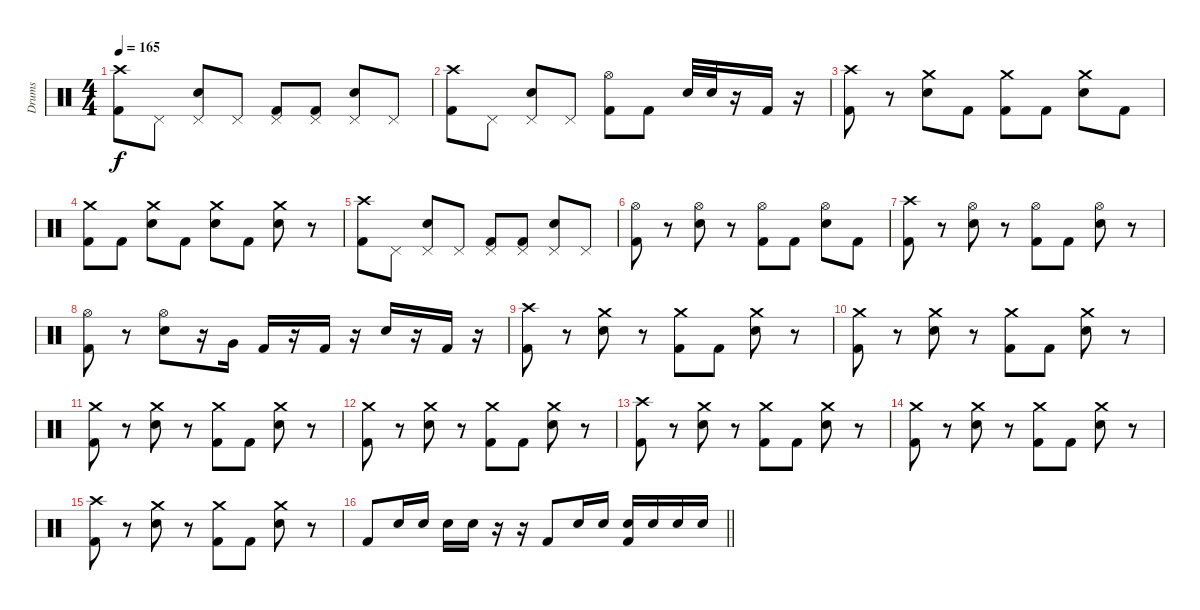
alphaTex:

\track ("Drums" "Drums") {instrument percussion}
\staff {score}
\articulation defaults
\ts (4 4)
\tempo 165
\clef neutral
\ks c
("Crash high (hit)" "Kick (hit) 2").8{dy f} "Pedal Hi-Hat (hit)".8 ("Pedal Hi-Hat (hit)" "Electric Snare (hit)").8 "Pedal Hi-Hat (hit)".8 ("Pedal Hi-Hat (hit)" "Kick (hit) 2").8 ("Pedal Hi-Hat (hit)" "Kick (hit) 2").8 ("Pedal Hi-Hat (hit)" "Electric Snare (hit)").8 "Pedal Hi-Hat (hit)".8 |
("Crash high (hit)" "Kick (hit) 2").8 "Pedal Hi-Hat (hit)".8 ("Pedal Hi-Hat (hit)" "Electric Snare (hit)").8 "Pedal Hi-Hat (hit)".8 ("Hi-Hat (open)" "Kick (hit) 2").8 "Kick (hit) 2".8 "Electric Snare (hit)".32 "Electric Snare (hit)".32 r.16 "Kick (hit) 2".16 r.16 |
("Crash high (hit)" "Kick (hit) 2").8 r.8 ("Crash medium (hit)" "Electric Snare (hit)").8 "Kick (hit) 2".8 ("Crash medium (hit)" "Kick (hit) 2").8 "Kick (hit) 2".8 ("Crash medium (hit)" "Electric Snare (hit)").8 "Kick (hit) 2".8 |
("Crash medium (hit)" "Kick (hit) 2").8 "Kick (hit) 2".8 ("Crash medium (hit)" "Electric Snare (hit)").8 "Kick (hit) 2".8 ("Crash medium (hit)" "Electric Snare (hit)").8 "Kick (hit) 2".8 ("Crash medium (hit)" "Electric Snare (hit)").8 r.8 |
("Crash high (hit)" "Kick (hit) 2").8 "Pedal Hi-Hat (hit)".8 ("Pedal Hi-Hat (hit)" "Electric Snare (hit)").8 "Pedal Hi-Hat (hit)".8 ("Pedal Hi-Hat (hit)" "Kick (hit) 2").8 ("Pedal Hi-Hat (hit)" "Kick (hit) 2").8 ("Pedal Hi-Hat (hit)" "Electric Snare (hit)").8 "Pedal Hi-Hat (hit)".8 |
("Hi-Hat (open)" "Kick (hit) 2").8 r.8 ("Hi-Hat (open)" "Electric Snare (hit)").8 r.8 ("Hi-Hat (open)" "Kick (hit) 2").8 "Kick (hit) 2".8 ("Hi-Hat (open)" "Electric Snare (hit)").8 "Kick (hit) 2".8 |
("Crash high (hit)" "Kick (hit) 2").8 r.8 ("Hi-Hat (open)" "Electric Snare (hit)").8 r.8 ("Hi-Hat (open)" "Kick (hit) 2").8 "Kick (hit) 2".8 ("Hi-Hat (open)" "Electric Snare (hit)").8 r.8 |
("Hi-Hat (open)" "Kick (hit) 2").8 r.8 ("Hi-Hat (open)" "Electric Snare (hit)").8 r.16 "Very Low Tom (hit)".16 "Kick (hit) 2".16 r.16 "Kick (hit) 2".16 r.16 "Electric Snare (hit)".16 r.16 "Kick (hit) 2".16 r.16 |
("Crash high (hit)" "Kick (hit) 2").8 r.8 ("Crash medium (hit)" "Electric Snare (hit)").8 r.8 ("Crash medium (hit)" "Kick (hit) 2").8 "Kick (hit) 2".8 ("Crash medium (hit)" "Electric Snare (hit)").8 r.8 |
("Crash medium (hit)" "Kick (hit) 2").8 r.8 ("Crash medium (hit)" "Electric Snare (hit)").8 r.8 ("Crash medium (hit)" "Kick (hit) 2").8 "Kick (hit) 2".8 ("Crash medium (hit)" "Electric Snare (hit)").8 r.8 |
("Crash medium (hit)" "Kick (hit) 2").8 r.8 ("Crash medium (hit)" "Electric Snare (hit)").8 r.8 ("Crash medium (hit)" "Kick (hit) 2").8 "Kick (hit) 2".8 ("Crash medium (hit)" "Electric Snare (hit)").8 r.8 |
("Crash medium (hit)" "Kick (hit) 2").8 r.8 ("Crash medium (hit)" "Electric Snare (hit)").8 r.8 ("Crash medium (hit)" "Kick (hit) 2").8 "Kick (hit) 2".8 ("Crash medium (hit)" "Electric Snare (hit)").8 r.8 |
("Crash high (hit)" "Kick (hit) 2").8 r.8 ("Crash medium (hit)" "Electric Snare (hit)").8 r.8 ("Crash medium (hit)" "Kick (hit) 2").8 "Kick (hit) 2".8 ("Crash medium (hit)" "Electric Snare (hit)").8 r.8 |
("Crash medium (hit)" "Kick (hit) 2").8 r.8 ("Crash medium (hit)" "Electric Snare (hit)").8 r.8 ("Crash medium (hit)" "Kick (hit) 2").8 "Kick (hit) 2".8 ("Crash medium (hit)" "Electric Snare (hit)").8 r.8 |
("Crash high (hit)" "Kick (hit) 2").8 r.8 ("Crash medium (hit)" "Electric Snare (hit)").8 r.8 ("Crash medium (hit)" "Kick (hit) 2").8 "Kick (hit) 2".8 ("Crash medium (hit)" "Electric Snare (hit)").8 r.8 |
\barLineRight lightlight "Kick (hit) 2".8 "Electric Snare (hit)".16 "Electric Snare (hit)".16 "Electric Snare (hit)".16 "Electric Snare (hit)".16
r.16 r.16 "Kick (hit) 2".8 "Electric Snare (hit)".16 "Electric Snare (hit)".16 ("Kick (hit) 2" "Electric Snare (hit)").16 "Electric Snare (hit)".16 "Electric Snare (hit)".16 "Electric Snare (hit)".16
